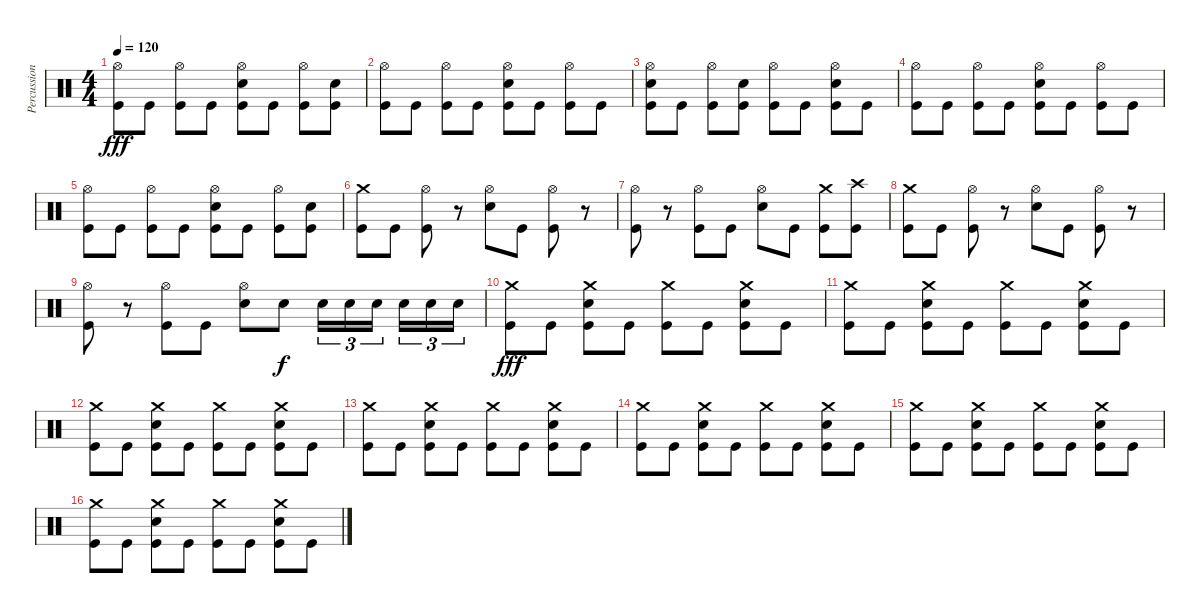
\track ("Percussion" "Percussion") {instrument percussion}
\staff {score}
\articulation defaults
\ts (4 4)
\tempo 120
\clef neutral
\ks c
("Hi-Hat (open)" "Kick (hit)").8{dy fff} "Kick (hit)".8 ("Hi-Hat (open)" "Kick (hit)").8 "Kick (hit)".8 ("Hi-Hat (open)" "Electric Snare (hit)" "Kick (hit)").8 "Kick (hit)".8 ("Hi-Hat (open)" "Kick (hit)").8 ("Electric Snare (hit)" "Kick (hit)").8 |
("Hi-Hat (open)" "Kick (hit)").8 "Kick (hit)".8 ("Hi-Hat (open)" "Kick (hit)").8 "Kick (hit)".8 ("Hi-Hat (open)" "Electric Snare (hit)" "Kick (hit)").8 "Kick (hit)".8 ("Hi-Hat (open)" "Kick (hit)").8 "Kick (hit)".8 |
("Hi-Hat (open)" "Electric Snare (hit)" "Kick (hit)").8 "Kick (hit)".8 ("Hi-Hat (open)" "Kick (hit)").8 ("Electric Snare (hit)" "Kick (hit)").8 ("Hi-Hat (open)" "Kick (hit)").8 "Kick (hit)".8 ("Hi-Hat (open)" "Electric Snare (hit)" "Kick (hit)").8 "Kick (hit)".8 |
("Hi-Hat (open)" "Kick (hit)").8 "Kick (hit)".8 ("Hi-Hat (open)" "Kick (hit)").8 "Kick (hit)".8 ("Hi-Hat (open)" "Electric Snare (hit)" "Kick (hit)").8 "Kick (hit)".8 ("Hi-Hat (open)" "Kick (hit)").8 "Kick (hit)".8 |
("Hi-Hat (open)" "Kick (hit)").8 "Kick (hit)".8 ("Hi-Hat (open)" "Kick (hit)").8 "Kick (hit)".8 ("Hi-Hat (open)" "Electric Snare (hit)" "Kick (hit)").8 "Kick (hit)".8 ("Hi-Hat (open)" "Kick (hit)").8 ("Electric Snare (hit)" "Kick (hit)").8 |
("Crash medium (hit)" "Kick (hit)").8 "Kick (hit)".8 ("Hi-Hat (open)" "Kick (hit)").8 r.8 ("Hi-Hat (open)" "Electric Snare (hit)").8 "Kick (hit)".8 ("Hi-Hat (open)" "Kick (hit)").8 r.8 |
("Hi-Hat (open)" "Kick (hit)").8 r.8 ("Hi-Hat (open)" "Kick (hit)").8 "Kick (hit)".8 ("Hi-Hat (open)" "Electric Snare (hit)").8 "Kick (hit)".8 ("Crash medium (hit)" "Kick (hit)").8 ("Crash high (hit)" "Kick (hit)").8 |
("Crash medium (hit)" "Kick (hit)").8 "Kick (hit)".8 ("Hi-Hat (open)" "Kick (hit)").8 r.8 ("Hi-Hat (open)" "Electric Snare (hit)").8 "Kick (hit)".8 ("Hi-Hat (open)" "Kick (hit)").8 r.8 |
("Hi-Hat (open)" "Kick (hit)").8 r.8 ("Hi-Hat (open)" "Kick (hit)").8 "Kick (hit)".8 ("Hi-Hat (open)" "Electric Snare (hit)").8 "Electric Snare (hit)".8{dy f} "Electric Snare (hit)".16{tu (3 2)} "Electric Snare (hit)".16{tu (3 2)} "Electric Snare (hit)".16{tu (3 2) beam splitsecondary} "Electric Snare (hit)".16{tu (3 2)} "Electric Snare (hit)".16{tu (3 2)} "Electric Snare (hit)".16{tu (3 2)} |
("Crash medium (hit)" "Kick (hit)").8{dy fff} "Kick (hit)".8 ("Crash medium (hit)" "Electric Snare (hit)" "Kick (hit)").8 "Kick (hit)".8 ("Crash medium (hit)" "Kick (hit)").8 "Kick (hit)".8 ("Crash medium (hit)" "Electric Snare (hit)" "Kick (hit)").8 "Kick (hit)".8 |
("Crash medium (hit)" "Kick (hit)").8 "Kick (hit)".8 ("Crash medium (hit)" "Electric Snare (hit)" "Kick (hit)").8 "Kick (hit)".8 ("Crash medium (hit)" "Kick (hit)").8 "Kick (hit)".8 ("Crash medium (hit)" "Electric Snare (hit)" "Kick (hit)").8 "Kick (hit)".8 |
("Crash medium (hit)" "Kick (hit)").8 "Kick (hit)".8 ("Crash medium (hit)" "Electric Snare (hit)" "Kick (hit)").8 "Kick (hit)".8 ("Crash medium (hit)" "Kick (hit)").8 "Kick (hit)".8 ("Crash medium (hit)" "Electric Snare (hit)" "Kick (hit)").8 "Kick (hit)".8 |
("Crash medium (hit)" "Kick (hit)").8 "Kick (hit)".8 ("Crash medium (hit)" "Electric Snare (hit)" "Kick (hit)").8 "Kick (hit)".8 ("Crash medium (hit)" "Kick (hit)").8 "Kick (hit)".8 ("Crash medium (hit)" "Electric Snare (hit)" "Kick (hit)").8 "Kick (hit)".8 |
("Crash medium (hit)" "Kick (hit)").8 "Kick (hit)".8 ("Crash medium (hit)" "Electric Snare (hit)" "Kick (hit)").8 "Kick (hit)".8 ("Crash medium (hit)" "Kick (hit)").8 "Kick (hit)".8 ("Crash medium (hit)" "Electric Snare (hit)" "Kick (hit)").8 "Kick (hit)".8 |
("Crash medium (hit)" "Kick (hit)").8 "Kick (hit)".8 ("Crash medium (hit)" "Electric Snare (hit)" "Kick (hit)").8 "Kick (hit)".8 ("Crash medium (hit)" "Kick (hit)").8 "Kick (hit)".8 ("Crash medium (hit)" "Electric Snare (hit)" "Kick (hit)").8 "Kick (hit)".8 |
("Crash medium (hit)" "Kick (hit)").8 "Kick (hit)".8 ("Crash medium (hit)" "Electric Snare (hit)" "Kick (hit)").8 "Kick (hit)".8 ("Crash medium (hit)" "Kick (hit)").8 "Kick (hit)".8 ("Crash medium (hit)" "Electric Snare (hit)" "Kick (hit)").8 "Kick (hit)".8
